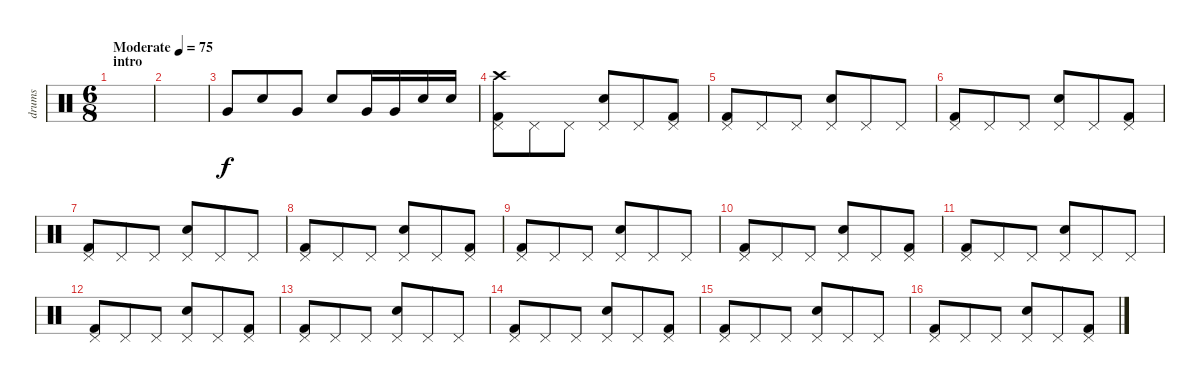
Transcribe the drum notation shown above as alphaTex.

\track ("drums" "drums") {instrument percussion}
\staff {score}
\articulation defaults
\ts (6 8)
\section ("" "intro")
\tempo (75 "Moderate")
\clef neutral
\ks c
|
|
"Very Low Tom (hit)".8 "Electric Snare (hit)".8 "Very Low Tom (hit)".8 "Electric Snare (hit)".8 "Very Low Tom (hit)".16 "Very Low Tom (hit)".16 "Electric Snare (hit)".16 "Electric Snare (hit)".16 |
("Kick (hit) 2" "Pedal Hi-Hat (hit)" "Crash high (hit)").8 "Pedal Hi-Hat (hit)".8 "Pedal Hi-Hat (hit)".8 ("Electric Snare (hit)" "Pedal Hi-Hat (hit)").8 "Pedal Hi-Hat (hit)".8 ("Kick (hit) 2" "Pedal Hi-Hat (hit)").8 |
("Kick (hit) 2" "Pedal Hi-Hat (hit)").8 "Pedal Hi-Hat (hit)".8 "Pedal Hi-Hat (hit)".8 ("Electric Snare (hit)" "Pedal Hi-Hat (hit)").8 "Pedal Hi-Hat (hit)".8 "Pedal Hi-Hat (hit)".8 |
("Kick (hit) 2" "Pedal Hi-Hat (hit)").8 "Pedal Hi-Hat (hit)".8 "Pedal Hi-Hat (hit)".8 ("Electric Snare (hit)" "Pedal Hi-Hat (hit)").8 "Pedal Hi-Hat (hit)".8 ("Kick (hit) 2" "Pedal Hi-Hat (hit)").8 |
("Kick (hit) 2" "Pedal Hi-Hat (hit)").8 "Pedal Hi-Hat (hit)".8 "Pedal Hi-Hat (hit)".8 ("Electric Snare (hit)" "Pedal Hi-Hat (hit)").8 "Pedal Hi-Hat (hit)".8 "Pedal Hi-Hat (hit)".8 |
("Kick (hit) 2" "Pedal Hi-Hat (hit)").8 "Pedal Hi-Hat (hit)".8 "Pedal Hi-Hat (hit)".8 ("Electric Snare (hit)" "Pedal Hi-Hat (hit)").8 "Pedal Hi-Hat (hit)".8 ("Kick (hit) 2" "Pedal Hi-Hat (hit)").8 |
("Kick (hit) 2" "Pedal Hi-Hat (hit)").8 "Pedal Hi-Hat (hit)".8 "Pedal Hi-Hat (hit)".8 ("Electric Snare (hit)" "Pedal Hi-Hat (hit)").8 "Pedal Hi-Hat (hit)".8 "Pedal Hi-Hat (hit)".8 |
("Kick (hit) 2" "Pedal Hi-Hat (hit)").8 "Pedal Hi-Hat (hit)".8 "Pedal Hi-Hat (hit)".8 ("Electric Snare (hit)" "Pedal Hi-Hat (hit)").8 "Pedal Hi-Hat (hit)".8 ("Kick (hit) 2" "Pedal Hi-Hat (hit)").8 |
("Kick (hit) 2" "Pedal Hi-Hat (hit)").8 "Pedal Hi-Hat (hit)".8 "Pedal Hi-Hat (hit)".8 ("Electric Snare (hit)" "Pedal Hi-Hat (hit)").8 "Pedal Hi-Hat (hit)".8 "Pedal Hi-Hat (hit)".8 |
("Kick (hit) 2" "Pedal Hi-Hat (hit)").8 "Pedal Hi-Hat (hit)".8 "Pedal Hi-Hat (hit)".8 ("Electric Snare (hit)" "Pedal Hi-Hat (hit)").8 "Pedal Hi-Hat (hit)".8 ("Kick (hit) 2" "Pedal Hi-Hat (hit)").8 |
("Kick (hit) 2" "Pedal Hi-Hat (hit)").8 "Pedal Hi-Hat (hit)".8 "Pedal Hi-Hat (hit)".8 ("Electric Snare (hit)" "Pedal Hi-Hat (hit)").8 "Pedal Hi-Hat (hit)".8 "Pedal Hi-Hat (hit)".8 |
("Kick (hit) 2" "Pedal Hi-Hat (hit)").8 "Pedal Hi-Hat (hit)".8 "Pedal Hi-Hat (hit)".8 ("Electric Snare (hit)" "Pedal Hi-Hat (hit)").8 "Pedal Hi-Hat (hit)".8 ("Kick (hit) 2" "Pedal Hi-Hat (hit)").8 |
("Kick (hit) 2" "Pedal Hi-Hat (hit)").8 "Pedal Hi-Hat (hit)".8 "Pedal Hi-Hat (hit)".8 ("Electric Snare (hit)" "Pedal Hi-Hat (hit)").8 "Pedal Hi-Hat (hit)".8 "Pedal Hi-Hat (hit)".8 |
("Kick (hit) 2" "Pedal Hi-Hat (hit)").8 "Pedal Hi-Hat (hit)".8 "Pedal Hi-Hat (hit)".8 ("Electric Snare (hit)" "Pedal Hi-Hat (hit)").8 "Pedal Hi-Hat (hit)".8 ("Kick (hit) 2" "Pedal Hi-Hat (hit)").8
